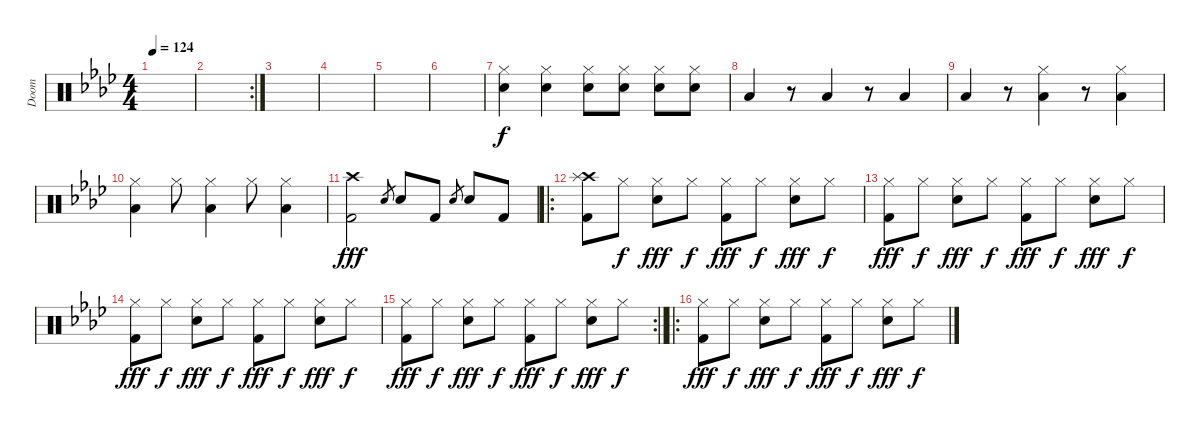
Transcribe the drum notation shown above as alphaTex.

\track ("Doom" "Doom") {instrument percussion}
\staff {score}
\articulation defaults
\ts (4 4)
\tempo 124
\clef neutral
\ks ab
|
\rc 2
|
|
|
|
|
("Hi-Hat (closed)" "Snare (hit)").4{dy f} ("Hi-Hat (closed)" "Snare (hit)").4 ("Hi-Hat (closed)" "Snare (hit)").8 ("Snare (hit)" "Hi-Hat (closed)").8 ("Snare (hit)" "Hi-Hat (closed)").8 ("Snare (hit)" "Hi-Hat (closed)").8 |
"Low Tom (hit)".4 r.8 "Low Tom (hit)".4 r.8 "Low Tom (hit)".4 |
"Low Tom (hit)".4 r.8 ("Hi-Hat (closed)" "Low Tom (hit)").4 r.8 ("Hi-Hat (closed)" "Low Tom (hit)").4 |
("Hi-Hat (closed)" "Low Tom (hit)").4 "Hi-Hat (closed)".8 ("Hi-Hat (closed)" "Low Tom (hit)").4 "Hi-Hat (closed)".8 ("Hi-Hat (closed)" "Low Tom (hit)").4 |
("Crash high (hit)" "Kick (hit) 2").2{dy fff} "Snare (hit) 2".8{gr} "Snare (hit) 2".8 "Kick (hit) 2".8 "Snare (hit) 2".8{gr} "Snare (hit) 2".8 "Kick (hit) 2".8 |
\ro
("Crash high (hit)" "Splash (hit)" "Kick (hit) 2").8 "Hi-Hat (closed)".8{dy f} ("Hi-Hat (closed)" "Snare (hit) 2").8{dy fff} "Hi-Hat (closed)".8{dy f} ("Hi-Hat (closed)" "Kick (hit) 2").8{dy fff} "Hi-Hat (closed)".8{dy f} ("Hi-Hat (closed)" "Snare (hit) 2").8{dy fff} "Hi-Hat (closed)".8{dy f} |
("Hi-Hat (closed)" "Kick (hit) 2").8{dy fff} "Hi-Hat (closed)".8{dy f} ("Hi-Hat (closed)" "Snare (hit) 2").8{dy fff} "Hi-Hat (closed)".8{dy f} ("Hi-Hat (closed)" "Kick (hit) 2").8{dy fff} "Hi-Hat (closed)".8{dy f} ("Hi-Hat (closed)" "Snare (hit) 2").8{dy fff} "Hi-Hat (closed)".8{dy f} |
("Hi-Hat (closed)" "Kick (hit) 2").8{dy fff} "Hi-Hat (closed)".8{dy f} ("Hi-Hat (closed)" "Snare (hit) 2").8{dy fff} "Hi-Hat (closed)".8{dy f} ("Hi-Hat (closed)" "Kick (hit) 2").8{dy fff} "Hi-Hat (closed)".8{dy f} ("Hi-Hat (closed)" "Snare (hit) 2").8{dy fff} "Hi-Hat (closed)".8{dy f} |
\rc 2
\barLineRight lightlight
("Hi-Hat (closed)" "Kick (hit) 2").8{dy fff} "Hi-Hat (closed)".8{dy f} ("Hi-Hat (closed)" "Snare (hit) 2").8{dy fff} "Hi-Hat (closed)".8{dy f} ("Hi-Hat (closed)" "Kick (hit) 2").8{dy fff} "Hi-Hat (closed)".8{dy f} ("Hi-Hat (closed)" "Snare (hit) 2").8{dy fff} "Hi-Hat (closed)".8{dy f} |
\ro
("Hi-Hat (closed)" "Kick (hit) 2").8{dy fff} "Hi-Hat (closed)".8{dy f} ("Hi-Hat (closed)" "Snare (hit) 2").8{dy fff} "Hi-Hat (closed)".8{dy f} ("Hi-Hat (closed)" "Kick (hit) 2").8{dy fff} "Hi-Hat (closed)".8{dy f} ("Hi-Hat (closed)" "Snare (hit) 2").8{dy fff} "Hi-Hat (closed)".8{dy f}
